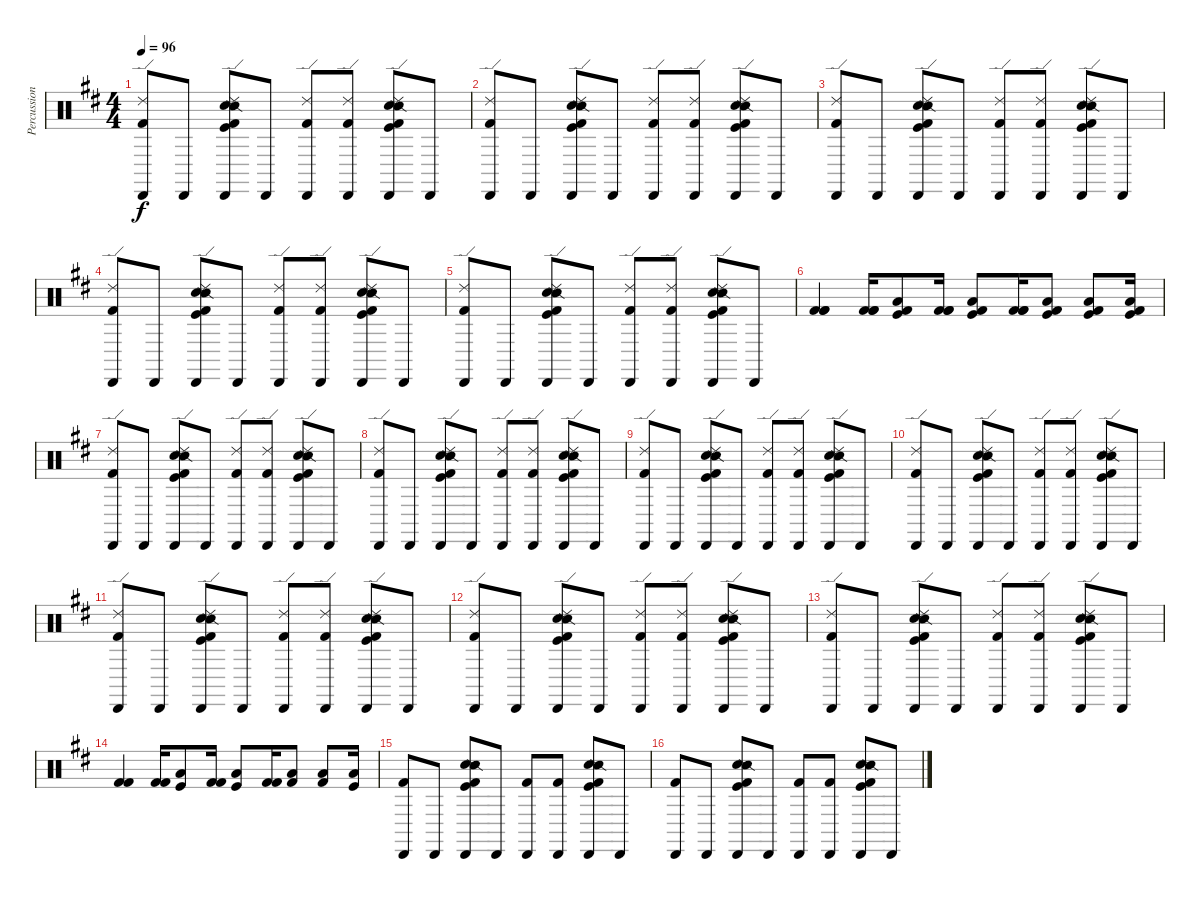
\track ("Percussion" "Percussion") {instrument percussion}
\staff {score}
\articulation defaults
\ts (4 4)
\tempo 96
\clef neutral
\ks bminor
("Kick (hit) 2" "Cabasa (hit)" "Ride (edge) 2").8{dy f} "Cabasa (hit)".8 ("Hand Clap (hit)" "Snare (side stick) 2" "Kick (hit) 2" "Kick (hit)" "Cabasa (hit)" "Ride (edge) 2").8 "Cabasa (hit)".8 ("Kick (hit) 2" "Cabasa (hit)" "Ride (edge) 2").8 ("Kick (hit) 2" "Cabasa (hit)" "Ride (edge) 2").8 ("Hand Clap (hit)" "Snare (side stick) 2" "Kick (hit) 2" "Kick (hit)" "Cabasa (hit)" "Ride (edge) 2").8 "Cabasa (hit)".8 |
("Kick (hit) 2" "Cabasa (hit)" "Ride (edge) 2").8 "Cabasa (hit)".8 ("Hand Clap (hit)" "Snare (side stick) 2" "Kick (hit) 2" "Kick (hit)" "Cabasa (hit)" "Ride (edge) 2").8 "Cabasa (hit)".8 ("Kick (hit) 2" "Cabasa (hit)" "Ride (edge) 2").8 ("Kick (hit) 2" "Cabasa (hit)" "Ride (edge) 2").8 ("Hand Clap (hit)" "Snare (side stick) 2" "Kick (hit) 2" "Kick (hit)" "Cabasa (hit)" "Ride (edge) 2").8 "Cabasa (hit)".8 |
("Kick (hit) 2" "Cabasa (hit)" "Ride (edge) 2").8 "Cabasa (hit)".8 ("Hand Clap (hit)" "Snare (side stick) 2" "Kick (hit) 2" "Kick (hit)" "Cabasa (hit)" "Ride (edge) 2").8 "Cabasa (hit)".8 ("Kick (hit) 2" "Cabasa (hit)" "Ride (edge) 2").8 ("Kick (hit) 2" "Cabasa (hit)" "Ride (edge) 2").8 ("Hand Clap (hit)" "Snare (side stick) 2" "Kick (hit) 2" "Kick (hit)" "Cabasa (hit)" "Ride (edge) 2").8 "Cabasa (hit)".8 |
("Kick (hit) 2" "Cabasa (hit)" "Ride (edge) 2").8 "Cabasa (hit)".8 ("Hand Clap (hit)" "Snare (side stick) 2" "Kick (hit) 2" "Kick (hit)" "Cabasa (hit)" "Ride (edge) 2").8 "Cabasa (hit)".8 ("Kick (hit) 2" "Cabasa (hit)" "Ride (edge) 2").8 ("Kick (hit) 2" "Cabasa (hit)" "Ride (edge) 2").8 ("Hand Clap (hit)" "Snare (side stick) 2" "Kick (hit) 2" "Kick (hit)" "Cabasa (hit)" "Ride (edge) 2").8 "Cabasa (hit)".8 |
("Kick (hit) 2" "Cabasa (hit)" "Ride (edge) 2").8 "Cabasa (hit)".8 ("Hand Clap (hit)" "Snare (side stick) 2" "Kick (hit) 2" "Kick (hit)" "Cabasa (hit)" "Ride (edge) 2").8 "Cabasa (hit)".8 ("Kick (hit) 2" "Cabasa (hit)" "Ride (edge) 2").8 ("Kick (hit) 2" "Cabasa (hit)" "Ride (edge) 2").8 ("Hand Clap (hit)" "Snare (side stick) 2" "Kick (hit) 2" "Kick (hit)" "Cabasa (hit)" "Ride (edge) 2").8 "Cabasa (hit)".8 |
("Kick (hit) 2" "Kick (hit) 2" "Kick (hit) 2").4 ("Kick (hit) 2" "Kick (hit) 2" "Kick (hit) 2").16 ("Low Floor Tom (hit)" "Kick (hit)" "Kick (hit) 2").8 ("Kick (hit) 2" "Kick (hit) 2" "Kick (hit) 2").16 ("Low Floor Tom (hit)" "Kick (hit)" "Kick (hit) 2").8 ("Kick (hit) 2" "Kick (hit) 2" "Kick (hit) 2").16 ("Low Floor Tom (hit)" "Kick (hit) 2" "Kick (hit)").8 ("Low Floor Tom (hit)" "Kick (hit) 2" "Kick (hit)").8 ("Low Floor Tom (hit)" "Kick (hit)" "Kick (hit) 2").16 |
("Kick (hit) 2" "Cabasa (hit)" "Ride (edge) 2").8 "Cabasa (hit)".8 ("Hand Clap (hit)" "Snare (side stick) 2" "Kick (hit) 2" "Kick (hit)" "Cabasa (hit)" "Ride (edge) 2").8 "Cabasa (hit)".8 ("Kick (hit) 2" "Cabasa (hit)" "Ride (edge) 2").8 ("Kick (hit) 2" "Cabasa (hit)" "Ride (edge) 2").8 ("Hand Clap (hit)" "Snare (side stick) 2" "Kick (hit) 2" "Kick (hit)" "Cabasa (hit)" "Ride (edge) 2").8 "Cabasa (hit)".8 |
("Kick (hit) 2" "Cabasa (hit)" "Ride (edge) 2").8 "Cabasa (hit)".8 ("Hand Clap (hit)" "Snare (side stick) 2" "Kick (hit) 2" "Kick (hit)" "Cabasa (hit)" "Ride (edge) 2").8 "Cabasa (hit)".8 ("Kick (hit) 2" "Cabasa (hit)" "Ride (edge) 2").8 ("Kick (hit) 2" "Cabasa (hit)" "Ride (edge) 2").8 ("Hand Clap (hit)" "Snare (side stick) 2" "Kick (hit) 2" "Kick (hit)" "Cabasa (hit)" "Ride (edge) 2").8 "Cabasa (hit)".8 |
("Kick (hit) 2" "Cabasa (hit)" "Ride (edge) 2").8 "Cabasa (hit)".8 ("Hand Clap (hit)" "Snare (side stick) 2" "Kick (hit) 2" "Kick (hit)" "Cabasa (hit)" "Ride (edge) 2").8 "Cabasa (hit)".8 ("Kick (hit) 2" "Cabasa (hit)" "Ride (edge) 2").8 ("Kick (hit) 2" "Cabasa (hit)" "Ride (edge) 2").8 ("Hand Clap (hit)" "Snare (side stick) 2" "Kick (hit) 2" "Kick (hit)" "Cabasa (hit)" "Ride (edge) 2").8 "Cabasa (hit)".8 |
("Kick (hit) 2" "Cabasa (hit)" "Ride (edge) 2").8 "Cabasa (hit)".8 ("Hand Clap (hit)" "Snare (side stick) 2" "Kick (hit) 2" "Kick (hit)" "Cabasa (hit)" "Ride (edge) 2").8 "Cabasa (hit)".8 ("Kick (hit) 2" "Cabasa (hit)" "Ride (edge) 2").8 ("Kick (hit) 2" "Cabasa (hit)" "Ride (edge) 2").8 ("Hand Clap (hit)" "Snare (side stick) 2" "Kick (hit) 2" "Kick (hit)" "Cabasa (hit)" "Ride (edge) 2").8 "Cabasa (hit)".8 |
("Kick (hit) 2" "Cabasa (hit)" "Ride (edge) 2").8 "Cabasa (hit)".8 ("Hand Clap (hit)" "Snare (side stick) 2" "Kick (hit) 2" "Kick (hit)" "Cabasa (hit)" "Ride (edge) 2").8 "Cabasa (hit)".8 ("Kick (hit) 2" "Cabasa (hit)" "Ride (edge) 2").8 ("Kick (hit) 2" "Cabasa (hit)" "Ride (edge) 2").8 ("Hand Clap (hit)" "Snare (side stick) 2" "Kick (hit) 2" "Kick (hit)" "Cabasa (hit)" "Ride (edge) 2").8 "Cabasa (hit)".8 |
("Kick (hit) 2" "Cabasa (hit)" "Ride (edge) 2").8 "Cabasa (hit)".8 ("Hand Clap (hit)" "Snare (side stick) 2" "Kick (hit) 2" "Kick (hit)" "Cabasa (hit)" "Ride (edge) 2").8 "Cabasa (hit)".8 ("Kick (hit) 2" "Cabasa (hit)" "Ride (edge) 2").8 ("Kick (hit) 2" "Cabasa (hit)" "Ride (edge) 2").8 ("Hand Clap (hit)" "Snare (side stick) 2" "Kick (hit) 2" "Kick (hit)" "Cabasa (hit)" "Ride (edge) 2").8 "Cabasa (hit)".8 |
("Kick (hit) 2" "Cabasa (hit)" "Ride (edge) 2").8 "Cabasa (hit)".8 ("Hand Clap (hit)" "Snare (side stick) 2" "Kick (hit) 2" "Kick (hit)" "Cabasa (hit)" "Ride (edge) 2").8 "Cabasa (hit)".8 ("Kick (hit) 2" "Cabasa (hit)" "Ride (edge) 2").8 ("Kick (hit) 2" "Cabasa (hit)" "Ride (edge) 2").8 ("Hand Clap (hit)" "Snare (side stick) 2" "Kick (hit) 2" "Kick (hit)" "Cabasa (hit)" "Ride (edge) 2").8 "Cabasa (hit)".8 |
("Kick (hit) 2" "Kick (hit) 2").4 ("Kick (hit) 2" "Kick (hit) 2").16 ("Low Floor Tom (hit)" "Kick (hit)").8 ("Kick (hit) 2" "Kick (hit) 2").16 ("Low Floor Tom (hit)" "Kick (hit)").8 ("Kick (hit) 2" "Kick (hit) 2").16 ("Low Floor Tom (hit)" "Kick (hit) 2").8 ("Low Floor Tom (hit)" "Kick (hit) 2").8 ("Low Floor Tom (hit)" "Kick (hit)").16 |
("Kick (hit) 2" "Cabasa (hit)").8 "Cabasa (hit)".8 ("Hand Clap (hit)" "Snare (side stick) 2" "Kick (hit) 2" "Kick (hit)" "Cabasa (hit)").8 "Cabasa (hit)".8 ("Kick (hit) 2" "Cabasa (hit)").8 ("Kick (hit) 2" "Cabasa (hit)").8 ("Hand Clap (hit)" "Snare (side stick) 2" "Kick (hit) 2" "Kick (hit)" "Cabasa (hit)").8 "Cabasa (hit)".8 |
("Kick (hit) 2" "Cabasa (hit)").8 "Cabasa (hit)".8 ("Hand Clap (hit)" "Snare (side stick) 2" "Kick (hit) 2" "Kick (hit)" "Cabasa (hit)").8 "Cabasa (hit)".8 ("Kick (hit) 2" "Cabasa (hit)").8 ("Kick (hit) 2" "Cabasa (hit)").8 ("Hand Clap (hit)" "Snare (side stick) 2" "Kick (hit) 2" "Kick (hit)" "Cabasa (hit)").8 "Cabasa (hit)".8
